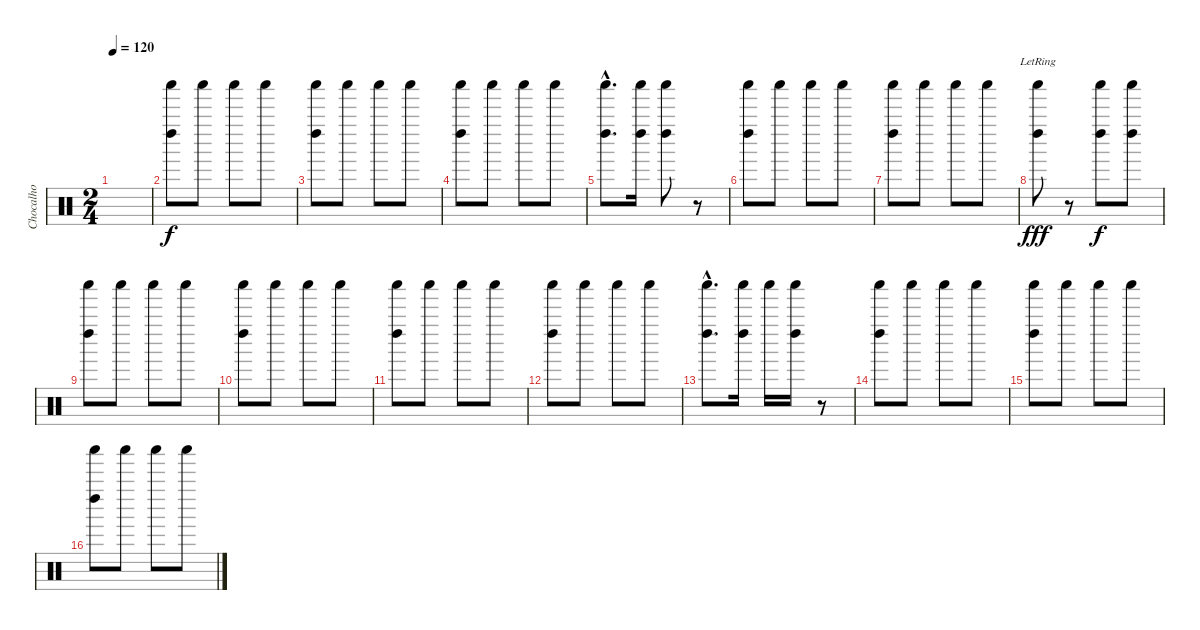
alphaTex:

\track ("Chocalho" "Chocalho") {instrument percussion}
\staff {score}
\articulation defaults
\ts (2 4)
\tempo 120
\clef neutral
\ks c
|
("Shaker (hit)" "Left Maraca (hit)").8 "Shaker (hit)".8 "Shaker (hit)".8 "Shaker (hit)".8 |
("Shaker (hit)" "Left Maraca (hit)").8 "Shaker (hit)".8 "Shaker (hit)".8 "Shaker (hit)".8 |
("Shaker (hit)" "Left Maraca (hit)").8 "Shaker (hit)".8 "Shaker (hit)".8 "Shaker (hit)".8 |
("Shaker (hit)"{hac} "Left Maraca (hit)"{hac}).8{d} ("Shaker (hit)" "Left Maraca (hit)").16 ("Shaker (hit)" "Left Maraca (hit)").8 r.8 |
("Shaker (hit)" "Left Maraca (hit)").8 "Shaker (hit)".8 "Shaker (hit)".8 "Shaker (hit)".8 |
("Shaker (hit)" "Left Maraca (hit)").8 "Shaker (hit)".8 "Shaker (hit)".8 "Shaker (hit)".8 |
("Shaker (hit)"{lr} "Left Maraca (hit)"{lr}).8{dy fff} r.8 ("Shaker (hit)" "Left Maraca (hit)").8{dy f} ("Shaker (hit)" "Left Maraca (hit)").8 |
("Shaker (hit)" "Left Maraca (hit)").8 "Shaker (hit)".8 "Shaker (hit)".8 "Shaker (hit)".8 |
("Shaker (hit)" "Left Maraca (hit)").8 "Shaker (hit)".8 "Shaker (hit)".8 "Shaker (hit)".8 |
("Shaker (hit)" "Left Maraca (hit)").8 "Shaker (hit)".8 "Shaker (hit)".8 "Shaker (hit)".8 |
("Shaker (hit)" "Left Maraca (hit)").8 "Shaker (hit)".8 "Shaker (hit)".8 "Shaker (hit)".8 |
("Shaker (hit)"{hac} "Left Maraca (hit)"{hac}).8{d} ("Shaker (hit)" "Left Maraca (hit)").16 "Shaker (hit)".16 ("Shaker (hit)" "Left Maraca (hit)").16 r.8 |
("Shaker (hit)" "Left Maraca (hit)").8 "Shaker (hit)".8 "Shaker (hit)".8 "Shaker (hit)".8 |
("Shaker (hit)" "Left Maraca (hit)").8 "Shaker (hit)".8 "Shaker (hit)".8 "Shaker (hit)".8 |
("Shaker (hit)" "Left Maraca (hit)").8 "Shaker (hit)".8 "Shaker (hit)".8 "Shaker (hit)".8
